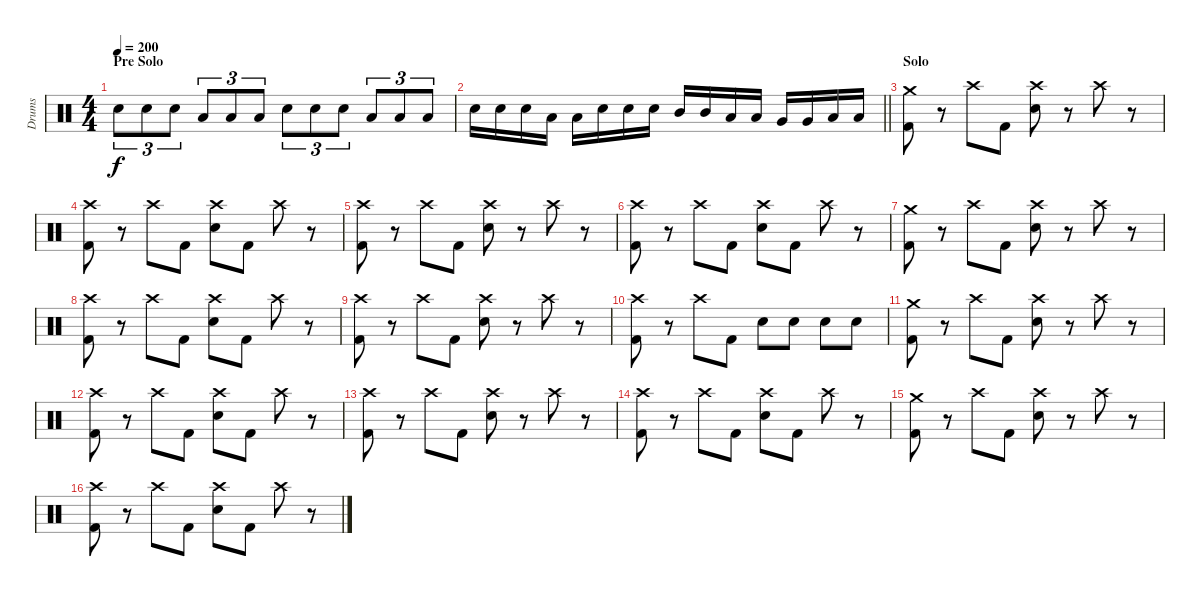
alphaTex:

\track ("Drums" "Drums") {instrument percussion}
\staff {score}
\articulation defaults
\ts (4 4)
\section ("" "Pre Solo")
\tempo 200
\clef neutral
\ks c "Electric Snare (hit)".8{tu (3 2) dy f} "Electric Snare (hit)".8{tu (3 2)} "Electric Snare (hit)".8{tu (3 2)} "Low Tom (hit)".8{tu (3 2)} "Low Tom (hit)".8{tu (3 2)} "Low Tom (hit)".8{tu (3 2)} "Electric Snare (hit)".8{tu (3 2)} "Electric Snare (hit)".8{tu (3 2)} "Electric Snare (hit)".8{tu (3 2)} "Low Tom (hit)".8{tu (3 2)} "Low Tom (hit)".8{tu (3 2)} "Low Tom (hit)".8{tu (3 2)}
|
\barLineRight lightlight "Electric Snare (hit)".16 "Electric Snare (hit)".16 "Electric Snare (hit)".16 "Low Tom (hit)".16 "Low Tom (hit)".16 "Electric Snare (hit)".16 "Electric Snare (hit)".16 "Electric Snare (hit)".16 "Mid Tom (hit)".16 "Mid Tom (hit)".16 "Low Tom (hit)".16 "Low Tom (hit)".16 "Very Low Tom (hit)".16 "Very Low Tom (hit)".16 "Low Floor Tom (hit)".16 "Low Floor Tom (hit)".16
|
\section ("" "Solo")
("Crash medium (hit)" "Kick (hit) 2").8 r.8 "Crash high (hit)".8 "Kick (hit) 2".8 ("Crash high (hit)" "Electric Snare (hit)").8 r.8 "Crash high (hit)".8 r.8 |
("Crash high (hit)" "Kick (hit) 2").8 r.8 "Crash high (hit)".8 "Kick (hit) 2".8 ("Crash high (hit)" "Electric Snare (hit)").8 "Kick (hit) 2".8 "Crash high (hit)".8 r.8 |
("Crash high (hit)" "Kick (hit) 2").8 r.8 "Crash high (hit)".8 "Kick (hit) 2".8 ("Crash high (hit)" "Electric Snare (hit)").8 r.8 "Crash high (hit)".8 r.8 |
("Crash high (hit)" "Kick (hit) 2").8 r.8 "Crash high (hit)".8 "Kick (hit) 2".8 ("Crash high (hit)" "Electric Snare (hit)").8 "Kick (hit) 2".8 "Crash high (hit)".8 r.8 |
("Crash medium (hit)" "Kick (hit) 2").8 r.8 "Crash high (hit)".8 "Kick (hit) 2".8 ("Crash high (hit)" "Electric Snare (hit)").8 r.8 "Crash high (hit)".8 r.8 |
("Crash high (hit)" "Kick (hit) 2").8 r.8 "Crash high (hit)".8 "Kick (hit) 2".8 ("Crash high (hit)" "Electric Snare (hit)").8 "Kick (hit) 2".8 "Crash high (hit)".8 r.8 |
("Crash high (hit)" "Kick (hit) 2").8 r.8 "Crash high (hit)".8 "Kick (hit) 2".8 ("Crash high (hit)" "Electric Snare (hit)").8 r.8 "Crash high (hit)".8 r.8 |
("Crash high (hit)" "Kick (hit) 2").8 r.8 "Crash high (hit)".8 "Kick (hit) 2".8 "Electric Snare (hit)".8 "Electric Snare (hit)".8 "Electric Snare (hit)".8 "Electric Snare (hit)".8 |
("Crash medium (hit)" "Kick (hit) 2").8 r.8 "Crash high (hit)".8 "Kick (hit) 2".8 ("Crash high (hit)" "Electric Snare (hit)").8 r.8 "Crash high (hit)".8 r.8 |
("Crash high (hit)" "Kick (hit) 2").8 r.8 "Crash high (hit)".8 "Kick (hit) 2".8 ("Crash high (hit)" "Electric Snare (hit)").8 "Kick (hit) 2".8 "Crash high (hit)".8 r.8 |
("Crash high (hit)" "Kick (hit) 2").8 r.8 "Crash high (hit)".8 "Kick (hit) 2".8 ("Crash high (hit)" "Electric Snare (hit)").8 r.8 "Crash high (hit)".8 r.8 |
("Crash high (hit)" "Kick (hit) 2").8 r.8 "Crash high (hit)".8 "Kick (hit) 2".8 ("Crash high (hit)" "Electric Snare (hit)").8 "Kick (hit) 2".8 "Crash high (hit)".8 r.8 |
("Crash medium (hit)" "Kick (hit) 2").8 r.8 "Crash high (hit)".8 "Kick (hit) 2".8 ("Crash high (hit)" "Electric Snare (hit)").8 r.8 "Crash high (hit)".8 r.8 |
("Crash high (hit)" "Kick (hit) 2").8 r.8 "Crash high (hit)".8 "Kick (hit) 2".8 ("Crash high (hit)" "Electric Snare (hit)").8 "Kick (hit) 2".8 "Crash high (hit)".8 r.8
